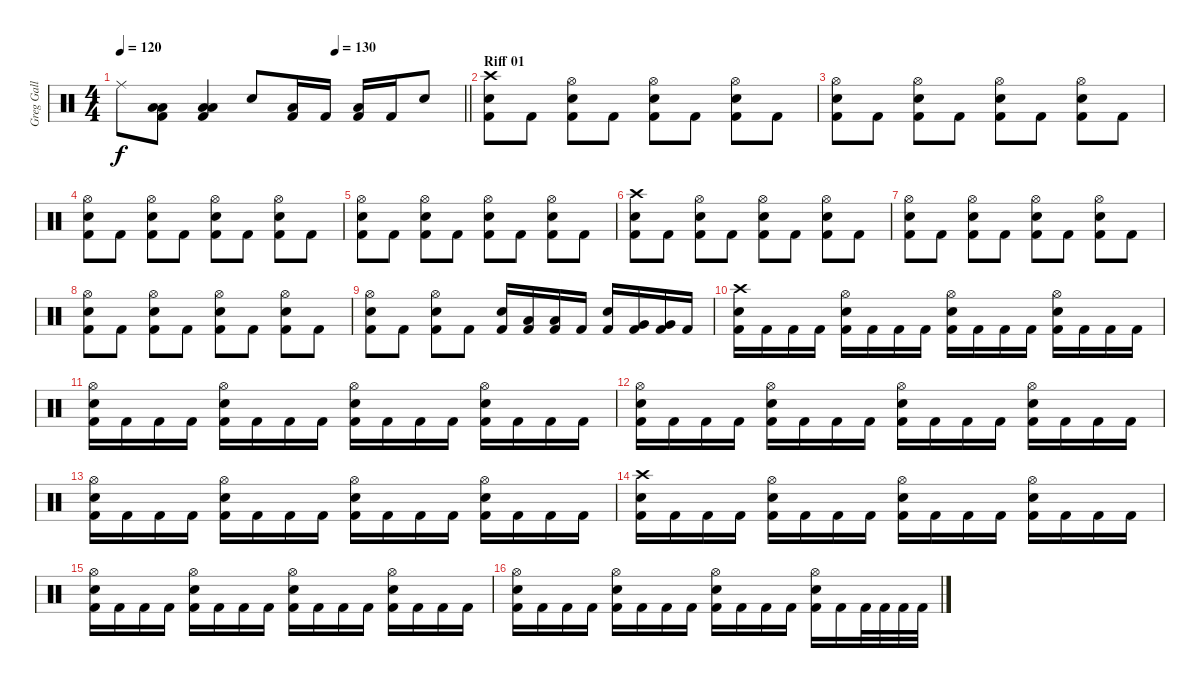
\track ("Greg Gall" "Greg Gall") {instrument percussion}
\staff {score}
\articulation defaults
\ts (4 4)
\tempo 120
\tempo (130 0.625)
\clef neutral
\barLineRight lightlight
\ks c "Ride (middle)".8{dy f}
("Low Floor Tom (hit)" "Low Floor Tom (hit)" "Kick (hit) 2").8 ("Low Floor Tom (hit)" "Low Floor Tom (hit)" "Kick (hit) 2").4 "Electric Snare (hit)".8 ("Low Tom (hit)" "Kick (hit) 2").16 "Kick (hit) 2".16 ("Low Tom (hit)" "Kick (hit) 2").16 "Kick (hit) 2".16 "Electric Snare (hit)".8 |
\section ("" "Riff 01")
("Crash high (hit)" "Electric Snare (hit)" "Kick (hit) 2").8 "Kick (hit) 2".8 ("Hi-Hat (open)" "Electric Snare (hit)" "Kick (hit) 2").8 "Kick (hit) 2".8 ("Hi-Hat (open)" "Electric Snare (hit)" "Kick (hit) 2").8 "Kick (hit) 2".8 ("Hi-Hat (open)" "Electric Snare (hit)" "Kick (hit) 2").8 "Kick (hit) 2".8 |
("Hi-Hat (open)" "Electric Snare (hit)" "Kick (hit) 2").8 "Kick (hit) 2".8 ("Hi-Hat (open)" "Electric Snare (hit)" "Kick (hit) 2").8 "Kick (hit) 2".8 ("Hi-Hat (open)" "Electric Snare (hit)" "Kick (hit) 2").8 "Kick (hit) 2".8 ("Hi-Hat (open)" "Electric Snare (hit)" "Kick (hit) 2").8 "Kick (hit) 2".8 |
("Hi-Hat (open)" "Electric Snare (hit)" "Kick (hit) 2").8 "Kick (hit) 2".8 ("Hi-Hat (open)" "Electric Snare (hit)" "Kick (hit) 2").8 "Kick (hit) 2".8 ("Hi-Hat (open)" "Electric Snare (hit)" "Kick (hit) 2").8 "Kick (hit) 2".8 ("Hi-Hat (open)" "Electric Snare (hit)" "Kick (hit) 2").8 "Kick (hit) 2".8 |
("Hi-Hat (open)" "Electric Snare (hit)" "Kick (hit) 2").8 "Kick (hit) 2".8 ("Hi-Hat (open)" "Electric Snare (hit)" "Kick (hit) 2").8 "Kick (hit) 2".8 ("Hi-Hat (open)" "Electric Snare (hit)" "Kick (hit) 2").8 "Kick (hit) 2".8 ("Hi-Hat (open)" "Electric Snare (hit)" "Kick (hit) 2").8 "Kick (hit) 2".8 |
("Crash high (hit)" "Electric Snare (hit)" "Kick (hit) 2").8 "Kick (hit) 2".8 ("Hi-Hat (open)" "Electric Snare (hit)" "Kick (hit) 2").8 "Kick (hit) 2".8 ("Hi-Hat (open)" "Electric Snare (hit)" "Kick (hit) 2").8 "Kick (hit) 2".8 ("Hi-Hat (open)" "Electric Snare (hit)" "Kick (hit) 2").8 "Kick (hit) 2".8 |
("Hi-Hat (open)" "Electric Snare (hit)" "Kick (hit) 2").8 "Kick (hit) 2".8 ("Hi-Hat (open)" "Electric Snare (hit)" "Kick (hit) 2").8 "Kick (hit) 2".8 ("Hi-Hat (open)" "Electric Snare (hit)" "Kick (hit) 2").8 "Kick (hit) 2".8 ("Hi-Hat (open)" "Electric Snare (hit)" "Kick (hit) 2").8 "Kick (hit) 2".8 |
("Hi-Hat (open)" "Electric Snare (hit)" "Kick (hit) 2").8 "Kick (hit) 2".8 ("Hi-Hat (open)" "Electric Snare (hit)" "Kick (hit) 2").8 "Kick (hit) 2".8 ("Hi-Hat (open)" "Electric Snare (hit)" "Kick (hit) 2").8 "Kick (hit) 2".8 ("Hi-Hat (open)" "Electric Snare (hit)" "Kick (hit) 2").8 "Kick (hit) 2".8 |
("Hi-Hat (open)" "Electric Snare (hit)" "Kick (hit) 2").8 "Kick (hit) 2".8 ("Hi-Hat (open)" "Electric Snare (hit)" "Kick (hit) 2").8 "Kick (hit) 2".8 ("Electric Snare (hit)" "Kick (hit) 2").16 ("Low Tom (hit)" "Kick (hit) 2").16 ("Low Tom (hit)" "Kick (hit) 2").16 "Kick (hit) 2".16 ("Electric Snare (hit)" "Kick (hit) 2").16 ("Very Low Tom (hit)" "Kick (hit) 2").16 ("Very Low Tom (hit)" "Kick (hit) 2").16 "Kick (hit) 2".16 |
("Crash high (hit)" "Electric Snare (hit)" "Kick (hit) 2").16 "Kick (hit) 2".16 "Kick (hit) 2".16 "Kick (hit) 2".16 ("Hi-Hat (open)" "Electric Snare (hit)" "Kick (hit) 2").16 "Kick (hit) 2".16 "Kick (hit) 2".16 "Kick (hit) 2".16 ("Hi-Hat (open)" "Electric Snare (hit)" "Kick (hit) 2").16 "Kick (hit) 2".16 "Kick (hit) 2".16 "Kick (hit) 2".16 ("Hi-Hat (open)" "Electric Snare (hit)" "Kick (hit) 2").16 "Kick (hit) 2".16 "Kick (hit) 2".16 "Kick (hit) 2".16 |
("Hi-Hat (open)" "Electric Snare (hit)" "Kick (hit) 2").16 "Kick (hit) 2".16 "Kick (hit) 2".16 "Kick (hit) 2".16 ("Hi-Hat (open)" "Electric Snare (hit)" "Kick (hit) 2").16 "Kick (hit) 2".16 "Kick (hit) 2".16 "Kick (hit) 2".16 ("Hi-Hat (open)" "Electric Snare (hit)" "Kick (hit) 2").16 "Kick (hit) 2".16 "Kick (hit) 2".16 "Kick (hit) 2".16 ("Hi-Hat (open)" "Electric Snare (hit)" "Kick (hit) 2").16 "Kick (hit) 2".16 "Kick (hit) 2".16 "Kick (hit) 2".16 |
("Hi-Hat (open)" "Electric Snare (hit)" "Kick (hit) 2").16 "Kick (hit) 2".16 "Kick (hit) 2".16 "Kick (hit) 2".16 ("Hi-Hat (open)" "Electric Snare (hit)" "Kick (hit) 2").16 "Kick (hit) 2".16 "Kick (hit) 2".16 "Kick (hit) 2".16 ("Hi-Hat (open)" "Electric Snare (hit)" "Kick (hit) 2").16 "Kick (hit) 2".16 "Kick (hit) 2".16 "Kick (hit) 2".16 ("Hi-Hat (open)" "Electric Snare (hit)" "Kick (hit) 2").16 "Kick (hit) 2".16 "Kick (hit) 2".16 "Kick (hit) 2".16 |
("Hi-Hat (open)" "Electric Snare (hit)" "Kick (hit) 2").16 "Kick (hit) 2".16 "Kick (hit) 2".16 "Kick (hit) 2".16 ("Hi-Hat (open)" "Electric Snare (hit)" "Kick (hit) 2").16 "Kick (hit) 2".16 "Kick (hit) 2".16 "Kick (hit) 2".16 ("Hi-Hat (open)" "Electric Snare (hit)" "Kick (hit) 2").16 "Kick (hit) 2".16 "Kick (hit) 2".16 "Kick (hit) 2".16 ("Hi-Hat (open)" "Electric Snare (hit)" "Kick (hit) 2").16 "Kick (hit) 2".16 "Kick (hit) 2".16 "Kick (hit) 2".16 |
("Crash high (hit)" "Electric Snare (hit)" "Kick (hit) 2").16 "Kick (hit) 2".16 "Kick (hit) 2".16 "Kick (hit) 2".16 ("Hi-Hat (open)" "Electric Snare (hit)" "Kick (hit) 2").16 "Kick (hit) 2".16 "Kick (hit) 2".16 "Kick (hit) 2".16 ("Hi-Hat (open)" "Electric Snare (hit)" "Kick (hit) 2").16 "Kick (hit) 2".16 "Kick (hit) 2".16 "Kick (hit) 2".16 ("Hi-Hat (open)" "Electric Snare (hit)" "Kick (hit) 2").16 "Kick (hit) 2".16 "Kick (hit) 2".16 "Kick (hit) 2".16 |
("Hi-Hat (open)" "Electric Snare (hit)" "Kick (hit) 2").16 "Kick (hit) 2".16 "Kick (hit) 2".16 "Kick (hit) 2".16 ("Hi-Hat (open)" "Electric Snare (hit)" "Kick (hit) 2").16 "Kick (hit) 2".16 "Kick (hit) 2".16 "Kick (hit) 2".16 ("Hi-Hat (open)" "Electric Snare (hit)" "Kick (hit) 2").16 "Kick (hit) 2".16 "Kick (hit) 2".16 "Kick (hit) 2".16 ("Hi-Hat (open)" "Electric Snare (hit)" "Kick (hit) 2").16 "Kick (hit) 2".16 "Kick (hit) 2".16 "Kick (hit) 2".16 |
("Hi-Hat (open)" "Electric Snare (hit)" "Kick (hit) 2").16 "Kick (hit) 2".16 "Kick (hit) 2".16 "Kick (hit) 2".16 ("Hi-Hat (open)" "Electric Snare (hit)" "Kick (hit) 2").16 "Kick (hit) 2".16 "Kick (hit) 2".16 "Kick (hit) 2".16 ("Hi-Hat (open)" "Electric Snare (hit)" "Kick (hit) 2").16 "Kick (hit) 2".16 "Kick (hit) 2".16 "Kick (hit) 2".16 ("Hi-Hat (open)" "Electric Snare (hit)" "Kick (hit) 2").16 "Kick (hit) 2".16 "Kick (hit) 2".32 "Kick (hit) 2".32 "Kick (hit) 2".32 "Kick (hit) 2".32
